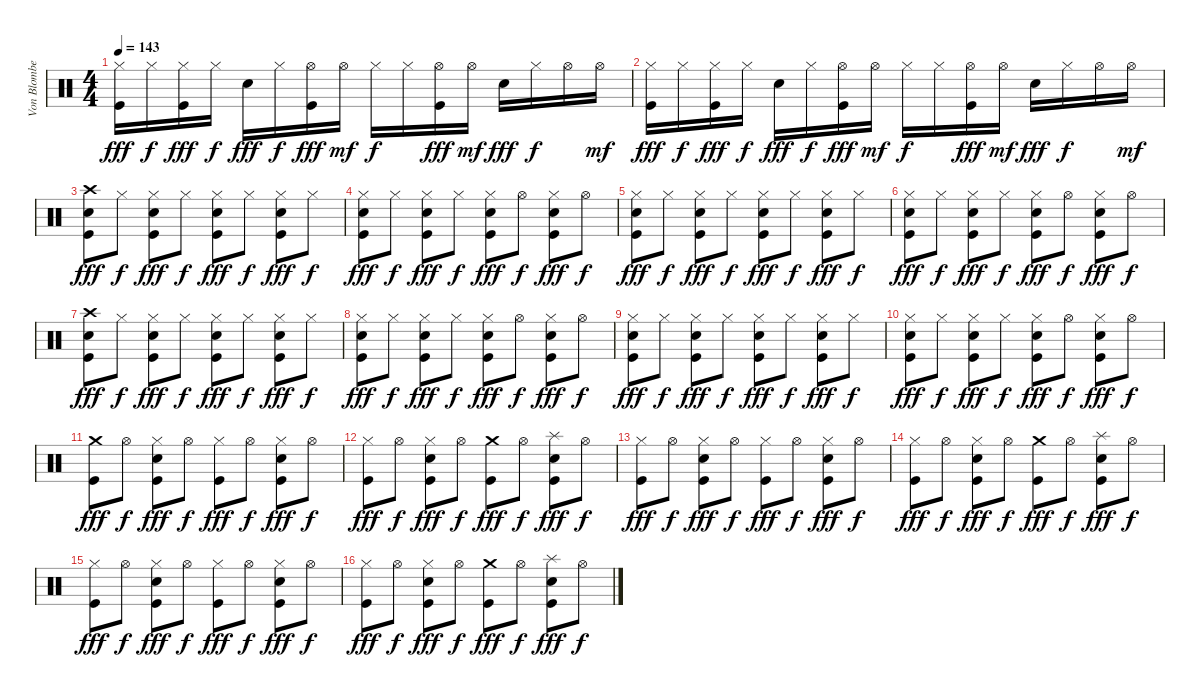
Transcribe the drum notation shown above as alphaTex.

\track ("Von Blomberg" "Von Blombe") {instrument percussion}
\staff {score}
\articulation defaults
\ts (4 4)
\tempo 143
\clef neutral
\ks c
("Hi-Hat (closed)" "Kick (hit)").16{dy fff} "Hi-Hat (closed)".16{dy f} ("Hi-Hat (closed)" "Kick (hit)").16{dy fff} "Hi-Hat (closed)".16{dy f} "Electric Snare (hit)".16{dy fff} "Hi-Hat (closed)".16{dy f} ("Hi-Hat (open)" "Kick (hit)").16{dy fff} "Hi-Hat (open)".16{dy mf} "Hi-Hat (closed)".16{dy f} "Hi-Hat (closed)".16 ("Hi-Hat (open)" "Kick (hit)").16{dy fff} "Hi-Hat (open)".16{dy mf} "Electric Snare (hit)".16{dy fff} "Hi-Hat (closed)".16{dy f} "Hi-Hat (open)".16 "Hi-Hat (open)".16{dy mf} |
("Hi-Hat (closed)" "Kick (hit)").16{dy fff} "Hi-Hat (closed)".16{dy f} ("Hi-Hat (closed)" "Kick (hit)").16{dy fff} "Hi-Hat (closed)".16{dy f} "Electric Snare (hit)".16{dy fff} "Hi-Hat (closed)".16{dy f} ("Hi-Hat (open)" "Kick (hit)").16{dy fff} "Hi-Hat (open)".16{dy mf} "Hi-Hat (closed)".16{dy f} "Hi-Hat (closed)".16 ("Hi-Hat (open)" "Kick (hit)").16{dy fff} "Hi-Hat (open)".16{dy mf} "Electric Snare (hit)".16{dy fff} "Hi-Hat (closed)".16{dy f} "Hi-Hat (open)".16 "Hi-Hat (open)".16{dy mf} |
("Crash high (hit)" "Kick (hit)" "Electric Snare (hit)").8{dy fff} "Hi-Hat (closed)".8{dy f} ("Hi-Hat (closed)" "Kick (hit)" "Electric Snare (hit)").8{dy fff} "Hi-Hat (closed)".8{dy f} ("Hi-Hat (closed)" "Electric Snare (hit)" "Kick (hit)").8{dy fff} "Hi-Hat (closed)".8{dy f} ("Hi-Hat (closed)" "Kick (hit)" "Electric Snare (hit)").8{dy fff} "Hi-Hat (closed)".8{dy f} |
("Hi-Hat (closed)" "Kick (hit)" "Electric Snare (hit)").8{dy fff} "Hi-Hat (closed)".8{dy f} ("Hi-Hat (closed)" "Kick (hit)" "Electric Snare (hit)").8{dy fff} "Hi-Hat (closed)".8{dy f} ("Hi-Hat (closed)" "Kick (hit)" "Electric Snare (hit)").8{dy fff} "Hi-Hat (open)".8{dy f} ("Hi-Hat (closed)" "Kick (hit)" "Electric Snare (hit)").8{dy fff} "Hi-Hat (open)".8{dy f} |
("Hi-Hat (closed)" "Electric Snare (hit)" "Kick (hit)").8{dy fff} "Hi-Hat (closed)".8{dy f} ("Hi-Hat (closed)" "Electric Snare (hit)" "Kick (hit)").8{dy fff} "Hi-Hat (closed)".8{dy f} ("Hi-Hat (closed)" "Electric Snare (hit)" "Kick (hit)").8{dy fff} "Hi-Hat (closed)".8{dy f} ("Hi-Hat (closed)" "Electric Snare (hit)" "Kick (hit)").8{dy fff} "Hi-Hat (closed)".8{dy f} |
("Hi-Hat (closed)" "Electric Snare (hit)" "Kick (hit)").8{dy fff} "Hi-Hat (closed)".8{dy f} ("Hi-Hat (closed)" "Electric Snare (hit)" "Kick (hit)").8{dy fff} "Hi-Hat (closed)".8{dy f} ("Hi-Hat (closed)" "Electric Snare (hit)" "Kick (hit)").8{dy fff} "Hi-Hat (open)".8{dy f} ("Hi-Hat (closed)" "Electric Snare (hit)" "Kick (hit)").8{dy fff} "Hi-Hat (open)".8{dy f} |
("Crash high (hit)" "Electric Snare (hit)" "Kick (hit)").8{dy fff} "Hi-Hat (closed)".8{dy f} ("Hi-Hat (closed)" "Electric Snare (hit)" "Kick (hit)").8{dy fff} "Hi-Hat (closed)".8{dy f} ("Hi-Hat (closed)" "Electric Snare (hit)" "Kick (hit)").8{dy fff} "Hi-Hat (closed)".8{dy f} ("Hi-Hat (closed)" "Electric Snare (hit)" "Kick (hit)").8{dy fff} "Hi-Hat (closed)".8{dy f} |
("Hi-Hat (closed)" "Kick (hit)" "Electric Snare (hit)").8{dy fff} "Hi-Hat (closed)".8{dy f} ("Hi-Hat (closed)" "Kick (hit)" "Electric Snare (hit)").8{dy fff} "Hi-Hat (closed)".8{dy f} ("Hi-Hat (closed)" "Kick (hit)" "Electric Snare (hit)").8{dy fff} "Hi-Hat (open)".8{dy f} ("Hi-Hat (closed)" "Kick (hit)" "Electric Snare (hit)").8{dy fff} "Hi-Hat (open)".8{dy f} |
("Hi-Hat (closed)" "Electric Snare (hit)" "Kick (hit)").8{dy fff} "Hi-Hat (closed)".8{dy f} ("Hi-Hat (closed)" "Electric Snare (hit)" "Kick (hit)").8{dy fff} "Hi-Hat (closed)".8{dy f} ("Hi-Hat (closed)" "Electric Snare (hit)" "Kick (hit)").8{dy fff} "Hi-Hat (closed)".8{dy f} ("Hi-Hat (closed)" "Electric Snare (hit)" "Kick (hit)").8{dy fff} "Hi-Hat (closed)".8{dy f} |
("Hi-Hat (closed)" "Electric Snare (hit)" "Kick (hit)").8{dy fff} "Hi-Hat (closed)".8{dy f} ("Hi-Hat (closed)" "Electric Snare (hit)" "Kick (hit)").8{dy fff} "Hi-Hat (closed)".8{dy f} ("Hi-Hat (closed)" "Electric Snare (hit)" "Kick (hit)").8{dy fff} "Hi-Hat (open)".8{dy f} ("Hi-Hat (closed)" "Electric Snare (hit)" "Kick (hit)").8{dy fff} "Hi-Hat (open)".8{dy f} |
("Crash medium (hit)" "Kick (hit)").8{dy fff} "Hi-Hat (open)".8{dy f} ("Hi-Hat (closed)" "Electric Snare (hit)" "Kick (hit)").8{dy fff} "Hi-Hat (open)".8{dy f} ("Hi-Hat (closed)" "Kick (hit)").8{dy fff} "Hi-Hat (open)".8{dy f} ("Hi-Hat (closed)" "Electric Snare (hit)" "Kick (hit)").8{dy fff} "Hi-Hat (open)".8{dy f} |
("Hi-Hat (closed)" "Kick (hit)").8{dy fff} "Hi-Hat (open)".8{dy f} ("Hi-Hat (closed)" "Electric Snare (hit)" "Kick (hit)").8{dy fff} "Hi-Hat (open)".8{dy f} ("Crash medium (hit)" "Kick (hit)").8{dy fff} "Hi-Hat (open)".8{dy f} ("Splash (hit)" "Electric Snare (hit)" "Kick (hit)").8{dy fff} "Hi-Hat (open)".8{dy f} |
("Hi-Hat (closed)" "Kick (hit)").8{dy fff} "Hi-Hat (open)".8{dy f} ("Hi-Hat (closed)" "Electric Snare (hit)" "Kick (hit)").8{dy fff} "Hi-Hat (open)".8{dy f} ("Hi-Hat (closed)" "Kick (hit)").8{dy fff} "Hi-Hat (open)".8{dy f} ("Hi-Hat (closed)" "Electric Snare (hit)" "Kick (hit)").8{dy fff} "Hi-Hat (open)".8{dy f} |
("Hi-Hat (closed)" "Kick (hit)").8{dy fff} "Hi-Hat (open)".8{dy f} ("Hi-Hat (closed)" "Electric Snare (hit)" "Kick (hit)").8{dy fff} "Hi-Hat (open)".8{dy f} ("Crash medium (hit)" "Kick (hit)").8{dy fff} "Hi-Hat (open)".8{dy f} ("Splash (hit)" "Electric Snare (hit)" "Kick (hit)").8{dy fff} "Hi-Hat (open)".8{dy f} |
("Hi-Hat (closed)" "Kick (hit)").8{dy fff} "Hi-Hat (open)".8{dy f} ("Hi-Hat (closed)" "Electric Snare (hit)" "Kick (hit)").8{dy fff} "Hi-Hat (open)".8{dy f} ("Hi-Hat (closed)" "Kick (hit)").8{dy fff} "Hi-Hat (open)".8{dy f} ("Hi-Hat (closed)" "Electric Snare (hit)" "Kick (hit)").8{dy fff} "Hi-Hat (open)".8{dy f} |
("Hi-Hat (closed)" "Kick (hit)").8{dy fff} "Hi-Hat (open)".8{dy f} ("Hi-Hat (closed)" "Electric Snare (hit)" "Kick (hit)").8{dy fff} "Hi-Hat (open)".8{dy f} ("Crash medium (hit)" "Kick (hit)").8{dy fff} "Hi-Hat (open)".8{dy f} ("Splash (hit)" "Electric Snare (hit)" "Kick (hit)").8{dy fff} "Hi-Hat (open)".8{dy f}
